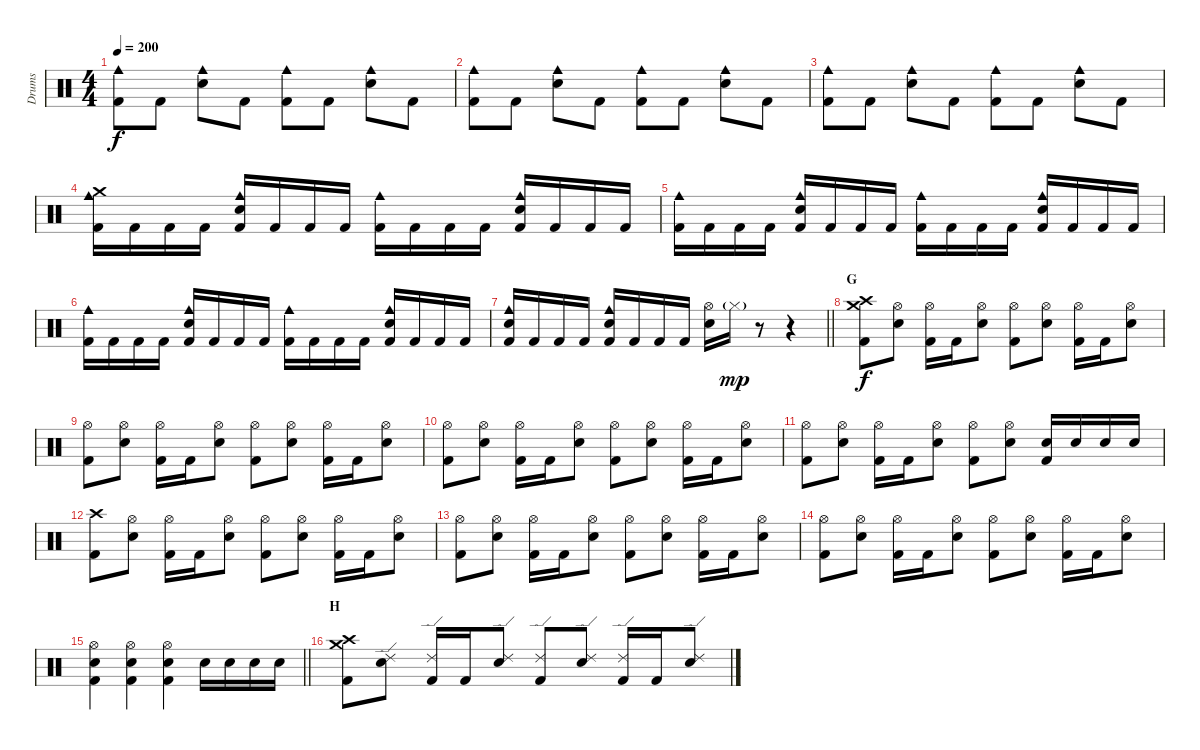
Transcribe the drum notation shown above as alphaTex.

\track ("Drums" "Drums") {instrument percussion}
\staff {score}
\articulation defaults
\ts (4 4)
\tempo 200
\clef neutral
\ks c
("Kick (hit) 2" "Cowbell medium (hit)").8{dy f} "Kick (hit) 2".8 ("Electric Snare (hit)" "Cowbell medium (hit)").8 "Kick (hit) 2".8 ("Kick (hit) 2" "Cowbell medium (hit)").8 "Kick (hit) 2".8 ("Electric Snare (hit)" "Cowbell medium (hit)").8 "Kick (hit) 2".8 |
("Kick (hit) 2" "Cowbell medium (hit)").8 "Kick (hit) 2".8 ("Electric Snare (hit)" "Cowbell medium (hit)").8 "Kick (hit) 2".8 ("Kick (hit) 2" "Cowbell medium (hit)").8 "Kick (hit) 2".8 ("Electric Snare (hit)" "Cowbell medium (hit)").8 "Kick (hit) 2".8 |
("Kick (hit) 2" "Cowbell medium (hit)").8 "Kick (hit) 2".8 ("Electric Snare (hit)" "Cowbell medium (hit)").8 "Kick (hit) 2".8 ("Kick (hit) 2" "Cowbell medium (hit)").8 "Kick (hit) 2".8 ("Electric Snare (hit)" "Cowbell medium (hit)").8 "Kick (hit) 2".8 |
("Crash medium (hit)" "Kick (hit) 2" "Cowbell medium (hit)").16 "Kick (hit) 2".16 "Kick (hit) 2".16 "Kick (hit) 2".16 ("Electric Snare (hit)" "Kick (hit) 2" "Cowbell medium (hit)").16 "Kick (hit) 2".16 "Kick (hit) 2".16 "Kick (hit) 2".16 ("Kick (hit) 2" "Cowbell medium (hit)").16 "Kick (hit) 2".16 "Kick (hit) 2".16 "Kick (hit) 2".16 ("Electric Snare (hit)" "Kick (hit) 2" "Cowbell medium (hit)").16 "Kick (hit) 2".16 "Kick (hit) 2".16 "Kick (hit) 2".16 |
("Kick (hit) 2" "Cowbell medium (hit)").16 "Kick (hit) 2".16 "Kick (hit) 2".16 "Kick (hit) 2".16 ("Electric Snare (hit)" "Kick (hit) 2" "Cowbell medium (hit)").16 "Kick (hit) 2".16 "Kick (hit) 2".16 "Kick (hit) 2".16 ("Kick (hit) 2" "Cowbell medium (hit)").16 "Kick (hit) 2".16 "Kick (hit) 2".16 "Kick (hit) 2".16 ("Electric Snare (hit)" "Kick (hit) 2" "Cowbell medium (hit)").16 "Kick (hit) 2".16 "Kick (hit) 2".16 "Kick (hit) 2".16 |
("Kick (hit) 2" "Cowbell medium (hit)").16 "Kick (hit) 2".16 "Kick (hit) 2".16 "Kick (hit) 2".16 ("Electric Snare (hit)" "Kick (hit) 2" "Cowbell medium (hit)").16 "Kick (hit) 2".16 "Kick (hit) 2".16 "Kick (hit) 2".16 ("Kick (hit) 2" "Cowbell medium (hit)").16 "Kick (hit) 2".16 "Kick (hit) 2".16 "Kick (hit) 2".16 ("Electric Snare (hit)" "Kick (hit) 2" "Cowbell medium (hit)").16 "Kick (hit) 2".16 "Kick (hit) 2".16 "Kick (hit) 2".16 |
\barLineRight lightlight
("Electric Snare (hit)" "Kick (hit) 2" "Cowbell medium (hit)").16 "Kick (hit) 2".16 "Kick (hit) 2".16 "Kick (hit) 2".16 ("Electric Snare (hit)" "Kick (hit) 2" "Cowbell medium (hit)").16 "Kick (hit) 2".16 "Kick (hit) 2".16 "Kick (hit) 2".16 ("Electric Snare (hit)" "Hi-Hat (open)").16 "Hi-Hat (closed)"{g}.16{dy mp} r.8 r.4 |
\section ("" "G")
("Crash medium (hit)" "Crash high (hit)" "Kick (hit) 2").8{dy f} ("Hi-Hat (open)" "Electric Snare (hit)").8 ("Hi-Hat (open)" "Kick (hit) 2").16 "Kick (hit) 2".16 ("Hi-Hat (open)" "Electric Snare (hit)").8 ("Hi-Hat (open)" "Kick (hit) 2").8 ("Electric Snare (hit)" "Hi-Hat (open)").8 ("Hi-Hat (open)" "Kick (hit) 2").16 "Kick (hit) 2".16 ("Hi-Hat (open)" "Electric Snare (hit)").8 |
("Hi-Hat (open)" "Kick (hit) 2").8 ("Hi-Hat (open)" "Electric Snare (hit)").8 ("Hi-Hat (open)" "Kick (hit) 2").16 "Kick (hit) 2".16 ("Hi-Hat (open)" "Electric Snare (hit)").8 ("Hi-Hat (open)" "Kick (hit) 2").8 ("Electric Snare (hit)" "Hi-Hat (open)").8 ("Hi-Hat (open)" "Kick (hit) 2").16 "Kick (hit) 2".16 ("Hi-Hat (open)" "Electric Snare (hit)").8 |
("Hi-Hat (open)" "Kick (hit) 2").8 ("Hi-Hat (open)" "Electric Snare (hit)").8 ("Hi-Hat (open)" "Kick (hit) 2").16 "Kick (hit) 2".16 ("Hi-Hat (open)" "Electric Snare (hit)").8 ("Hi-Hat (open)" "Kick (hit) 2").8 ("Electric Snare (hit)" "Hi-Hat (open)").8 ("Hi-Hat (open)" "Kick (hit) 2").16 "Kick (hit) 2".16 ("Hi-Hat (open)" "Electric Snare (hit)").8 |
("Hi-Hat (open)" "Kick (hit) 2").8 ("Hi-Hat (open)" "Electric Snare (hit)").8 ("Hi-Hat (open)" "Kick (hit) 2").16 "Kick (hit) 2".16 ("Hi-Hat (open)" "Electric Snare (hit)").8 ("Hi-Hat (open)" "Kick (hit) 2").8 ("Electric Snare (hit)" "Hi-Hat (open)").8 ("Electric Snare (hit)" "Kick (hit) 2").16 "Electric Snare (hit)".16 "Electric Snare (hit)".16 "Electric Snare (hit)".16 |
("Crash high (hit)" "Kick (hit) 2").8 ("Hi-Hat (open)" "Electric Snare (hit)").8 ("Hi-Hat (open)" "Kick (hit) 2").16 "Kick (hit) 2".16 ("Hi-Hat (open)" "Electric Snare (hit)").8 ("Hi-Hat (open)" "Kick (hit) 2").8 ("Electric Snare (hit)" "Hi-Hat (open)").8 ("Hi-Hat (open)" "Kick (hit) 2").16 "Kick (hit) 2".16 ("Hi-Hat (open)" "Electric Snare (hit)").8 |
("Hi-Hat (open)" "Kick (hit) 2").8 ("Hi-Hat (open)" "Electric Snare (hit)").8 ("Hi-Hat (open)" "Kick (hit) 2").16 "Kick (hit) 2".16 ("Hi-Hat (open)" "Electric Snare (hit)").8 ("Hi-Hat (open)" "Kick (hit) 2").8 ("Electric Snare (hit)" "Hi-Hat (open)").8 ("Hi-Hat (open)" "Kick (hit) 2").16 "Kick (hit) 2".16 ("Hi-Hat (open)" "Electric Snare (hit)").8 |
("Hi-Hat (open)" "Kick (hit) 2").8 ("Hi-Hat (open)" "Electric Snare (hit)").8 ("Hi-Hat (open)" "Kick (hit) 2").16 "Kick (hit) 2".16 ("Hi-Hat (open)" "Electric Snare (hit)").8 ("Hi-Hat (open)" "Kick (hit) 2").8 ("Electric Snare (hit)" "Hi-Hat (open)").8 ("Hi-Hat (open)" "Kick (hit) 2").16 "Kick (hit) 2".16 ("Hi-Hat (open)" "Electric Snare (hit)").8 |
\barLineRight lightlight
("Electric Snare (hit)" "Kick (hit) 2" "Hi-Hat (open)").4 ("Electric Snare (hit)" "Kick (hit) 2" "Hi-Hat (open)").4 ("Electric Snare (hit)" "Kick (hit) 2" "Hi-Hat (open)").4 "Electric Snare (hit)".16 "Electric Snare (hit)".16 "Electric Snare (hit)".16 "Electric Snare (hit)".16 |
\section ("" "H")
("Crash medium (hit)" "Crash high (hit)" "Kick (hit) 2").8 ("Ride (edge) 2" "Electric Snare (hit)").8 ("Ride (edge) 2" "Kick (hit) 2").16 "Kick (hit) 2".16 ("Ride (edge) 2" "Electric Snare (hit)").8 ("Ride (edge) 2" "Kick (hit) 2").8 ("Electric Snare (hit)" "Ride (edge) 2").8 ("Ride (edge) 2" "Kick (hit) 2").16 "Kick (hit) 2".16 ("Ride (edge) 2" "Electric Snare (hit)").8
